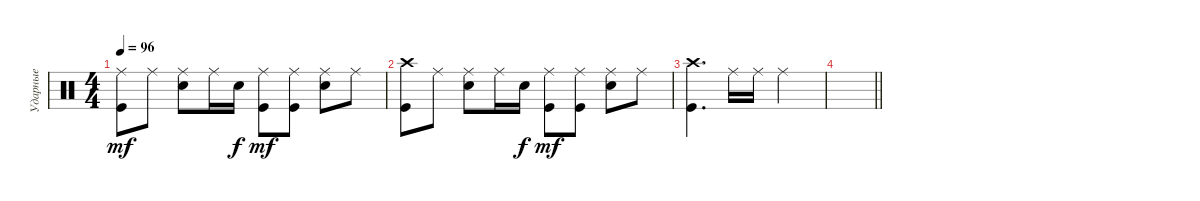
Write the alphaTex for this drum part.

\track ("Ударные" "Ударные") {instrument percussion}
\staff {score}
\articulation defaults
\ts (4 4)
\tempo 96
\clef neutral
\ks c
("Kick (hit)" "Ride (middle)").8{dy mf} "Ride (middle)".8 ("Electric Snare (hit)" "Ride (middle)").8 "Ride (middle)".16 "Electric Snare (hit)".16{dy f} ("Kick (hit)" "Ride (middle)").8{dy mf} ("Kick (hit)" "Ride (middle)").8 ("Electric Snare (hit)" "Ride (middle)").8 "Ride (middle)".8 |
("Kick (hit)" "Crash high (hit)").8 "Ride (middle)".8 ("Electric Snare (hit)" "Ride (middle)").8 "Ride (middle)".16 "Electric Snare (hit)".16{dy f} ("Kick (hit)" "Ride (middle)").8{dy mf} ("Kick (hit)" "Ride (middle)").8 ("Electric Snare (hit)" "Ride (middle)").8 "Ride (middle)".8 |
("Kick (hit)" "Crash high (hit)").4{d} "Ride (middle)".16 "Ride (middle)".16 "Ride (middle)".2 |
\barLineRight lightlight
